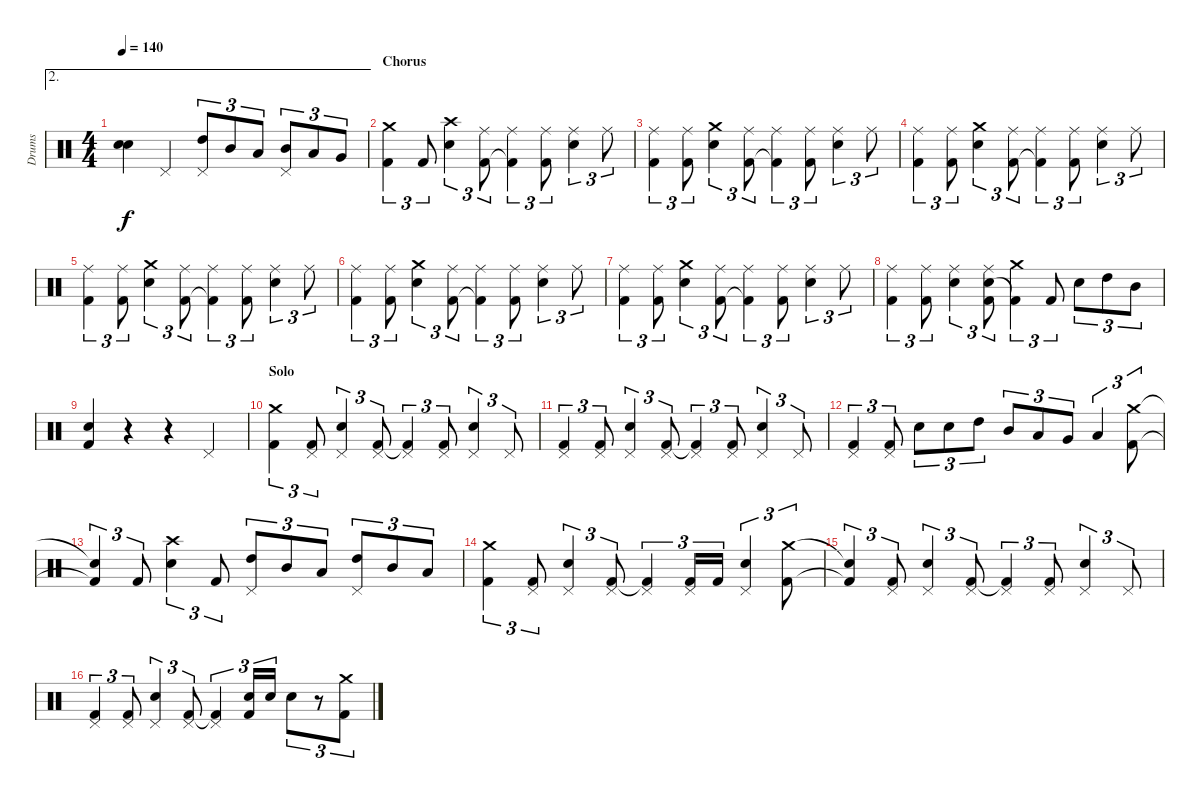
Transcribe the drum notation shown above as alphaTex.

\track ("Drums" "Drums") {instrument percussion}
\staff {score}
\articulation defaults
\ae 2
\ts (4 4)
\tempo 140
\clef neutral
\ks c
("Snare (hit)"{t} "Snare (hit)"{t}).4{dy f} "Pedal Hi-Hat (hit)".4 ("Pedal Hi-Hat (hit)" "High Tom (hit)").8{tu (3 2)} "Mid Tom (hit)".8{tu (3 2)} "Low Tom (hit)".8{tu (3 2)} ("Pedal Hi-Hat (hit)" "Mid Tom (hit)").8{tu (3 2)} "Low Tom (hit)".8{tu (3 2)} "Very Low Tom (hit)".8{tu (3 2)} |
\section ("" "Chorus")
("Crash medium (hit)" "Kick (hit) 2").4{tu (3 2)} "Kick (hit) 2".8{tu (3 2)} ("Crash high (hit)" "Snare (hit) 2").4{tu (3 2)} ("Ride (middle)" "Kick (hit) 2").8{tu (3 2)} ("Ride (middle)" "Kick (hit) 2"{t}).4{tu (3 2)} ("Ride (middle)" "Kick (hit) 2").8{tu (3 2)} ("Ride (middle)" "Snare (hit) 2").4{tu (3 2)} "Ride (middle)".8{tu (3 2)} |
("Ride (middle)" "Kick (hit) 2").4{tu (3 2)} ("Ride (middle)" "Kick (hit) 2").8{tu (3 2)} ("Crash medium (hit)" "Snare (hit) 2").4{tu (3 2)} ("Ride (middle)" "Kick (hit) 2").8{tu (3 2)} ("Ride (middle)" "Kick (hit) 2"{t}).4{tu (3 2)} ("Ride (middle)" "Kick (hit) 2").8{tu (3 2)} ("Ride (middle)" "Snare (hit) 2").4{tu (3 2)} "Ride (middle)".8{tu (3 2)} |
("Ride (middle)" "Kick (hit) 2").4{tu (3 2)} ("Ride (middle)" "Kick (hit) 2").8{tu (3 2)} ("Crash medium (hit)" "Snare (hit) 2").4{tu (3 2)} ("Ride (middle)" "Kick (hit) 2").8{tu (3 2)} ("Ride (middle)" "Kick (hit) 2"{t}).4{tu (3 2)} ("Ride (middle)" "Kick (hit) 2").8{tu (3 2)} ("Ride (middle)" "Snare (hit) 2").4{tu (3 2)} "Ride (middle)".8{tu (3 2)} |
("Ride (middle)" "Kick (hit) 2").4{tu (3 2)} ("Ride (middle)" "Kick (hit) 2").8{tu (3 2)} ("Crash medium (hit)" "Snare (hit) 2").4{tu (3 2)} ("Ride (middle)" "Kick (hit) 2").8{tu (3 2)} ("Ride (middle)" "Kick (hit) 2"{t}).4{tu (3 2)} ("Ride (middle)" "Kick (hit) 2").8{tu (3 2)} ("Ride (middle)" "Snare (hit) 2").4{tu (3 2)} "Ride (middle)".8{tu (3 2)} |
("Ride (middle)" "Kick (hit) 2").4{tu (3 2)} ("Ride (middle)" "Kick (hit) 2").8{tu (3 2)} ("Crash medium (hit)" "Snare (hit) 2").4{tu (3 2)} ("Ride (middle)" "Kick (hit) 2").8{tu (3 2)} ("Ride (middle)" "Kick (hit) 2"{t}).4{tu (3 2)} ("Ride (middle)" "Kick (hit) 2").8{tu (3 2)} ("Ride (middle)" "Snare (hit) 2").4{tu (3 2)} "Ride (middle)".8{tu (3 2)} |
("Ride (middle)" "Kick (hit) 2").4{tu (3 2)} ("Ride (middle)" "Kick (hit) 2").8{tu (3 2)} ("Crash medium (hit)" "Snare (hit) 2").4{tu (3 2)} ("Ride (middle)" "Kick (hit) 2").8{tu (3 2)} ("Ride (middle)" "Kick (hit) 2"{t}).4{tu (3 2)} ("Ride (middle)" "Kick (hit) 2").8{tu (3 2)} ("Ride (middle)" "Snare (hit) 2").4{tu (3 2)} "Ride (middle)".8{tu (3 2)} |
("Ride (middle)" "Kick (hit) 2").4{tu (3 2)} ("Ride (middle)" "Kick (hit) 2").8{tu (3 2)} ("Ride (middle)" "Snare (hit) 2").4{tu (3 2)} ("Ride (middle)" "Snare (hit) 2" "Kick (hit) 2").8{tu (3 2)} ("Crash medium (hit)" "Kick (hit) 2"{t}).4{tu (3 2)} "Kick (hit) 2".8{tu (3 2)} "Snare (hit) 2".8{tu (3 2)} "High Tom (hit)".8{tu (3 2)} "Mid Tom (hit)".8{tu (3 2)} |
("Snare (hit) 2" "Kick (hit) 2").4 r.4 r.4 "Pedal Hi-Hat (hit)".4 |
\section ("" "Solo")
("Crash medium (hit)" "Kick (hit) 2").4{tu (3 2)} ("Pedal Hi-Hat (hit)" "Kick (hit) 2").8{tu (3 2)} ("Pedal Hi-Hat (hit)" "Snare (hit) 2").4{tu (3 2)} ("Pedal Hi-Hat (hit)" "Kick (hit) 2").8{tu (3 2)} ("Pedal Hi-Hat (hit)" "Kick (hit) 2"{t}).4{tu (3 2)} ("Pedal Hi-Hat (hit)" "Kick (hit) 2").8{tu (3 2)} ("Pedal Hi-Hat (hit)" "Snare (hit) 2").4{tu (3 2)} "Pedal Hi-Hat (hit)".8{tu (3 2)} |
("Pedal Hi-Hat (hit)" "Kick (hit) 2").4{tu (3 2)} ("Pedal Hi-Hat (hit)" "Kick (hit) 2").8{tu (3 2)} ("Pedal Hi-Hat (hit)" "Snare (hit) 2").4{tu (3 2)} ("Pedal Hi-Hat (hit)" "Kick (hit) 2").8{tu (3 2)} ("Pedal Hi-Hat (hit)" "Kick (hit) 2"{t}).4{tu (3 2)} ("Pedal Hi-Hat (hit)" "Kick (hit) 2").8{tu (3 2)} ("Pedal Hi-Hat (hit)" "Snare (hit) 2").4{tu (3 2)} "Pedal Hi-Hat (hit)".8{tu (3 2)} |
("Pedal Hi-Hat (hit)" "Kick (hit) 2").4{tu (3 2)} ("Pedal Hi-Hat (hit)" "Kick (hit) 2").8{tu (3 2)} "Snare (hit) 2".8{tu (3 2)} "Snare (hit) 2".8{tu (3 2)} "High Tom (hit)".8{tu (3 2)} "Mid Tom (hit)".8{tu (3 2)} "Low Tom (hit)".8{tu (3 2)} "Very Low Tom (hit)".8{tu (3 2)} "Low Floor Tom (hit)".4{tu (3 2)} ("Crash medium (hit)" "Kick (hit) 2").8{tu (3 2)} |
("Snare (hit)"{t} "Kick (hit) 2"{t}).4{tu (3 2)} "Kick (hit) 2".8{tu (3 2)} ("Crash high (hit)" "Snare (hit) 2").4{tu (3 2)} "Kick (hit) 2".8{tu (3 2)} ("Pedal Hi-Hat (hit)" "High Tom (hit)").8{tu (3 2)} "Mid Tom (hit)".8{tu (3 2)} "Low Tom (hit)".8{tu (3 2)} ("Pedal Hi-Hat (hit)" "High Tom (hit)").8{tu (3 2)} "Mid Tom (hit)".8{tu (3 2)} "Low Tom (hit)".8{tu (3 2)} |
("Crash medium (hit)" "Kick (hit) 2").4{tu (3 2)} ("Pedal Hi-Hat (hit)" "Kick (hit) 2").8{tu (3 2)} ("Pedal Hi-Hat (hit)" "Snare (hit) 2").4{tu (3 2)} ("Pedal Hi-Hat (hit)" "Kick (hit) 2").8{tu (3 2)} ("Pedal Hi-Hat (hit)" "Kick (hit) 2"{t}).4{tu (3 2)} ("Pedal Hi-Hat (hit)" "Kick (hit) 2").16{tu (3 2)} "Kick (hit) 2".16{tu (3 2)} ("Pedal Hi-Hat (hit)" "Snare (hit) 2").4{tu (3 2)} ("Crash medium (hit)" "Kick (hit) 2").8{tu (3 2)} |
("Snare (hit)"{t} "Kick (hit) 2"{t}).4{tu (3 2)} ("Pedal Hi-Hat (hit)" "Kick (hit) 2").8{tu (3 2)} ("Pedal Hi-Hat (hit)" "Snare (hit) 2").4{tu (3 2)} ("Pedal Hi-Hat (hit)" "Kick (hit) 2").8{tu (3 2)} ("Pedal Hi-Hat (hit)" "Kick (hit) 2"{t}).4{tu (3 2)} ("Pedal Hi-Hat (hit)" "Kick (hit) 2").8{tu (3 2)} ("Pedal Hi-Hat (hit)" "Snare (hit) 2").4{tu (3 2)} "Pedal Hi-Hat (hit)".8{tu (3 2)} |
("Pedal Hi-Hat (hit)" "Kick (hit) 2").4{tu (3 2)} ("Pedal Hi-Hat (hit)" "Kick (hit) 2").8{tu (3 2)} ("Pedal Hi-Hat (hit)" "Snare (hit) 2").4{tu (3 2)} ("Pedal Hi-Hat (hit)" "Kick (hit) 2").8{tu (3 2)} ("Pedal Hi-Hat (hit)" "Kick (hit) 2"{t}).4{tu (3 2)} ("Snare (hit) 2" "Kick (hit) 2").16{tu (3 2)} "Snare (hit) 2".16{tu (3 2)} "Snare (hit) 2".8{tu (3 2)} r.8{tu (3 2)} ("Crash medium (hit)" "Kick (hit) 2").8{tu (3 2)}
